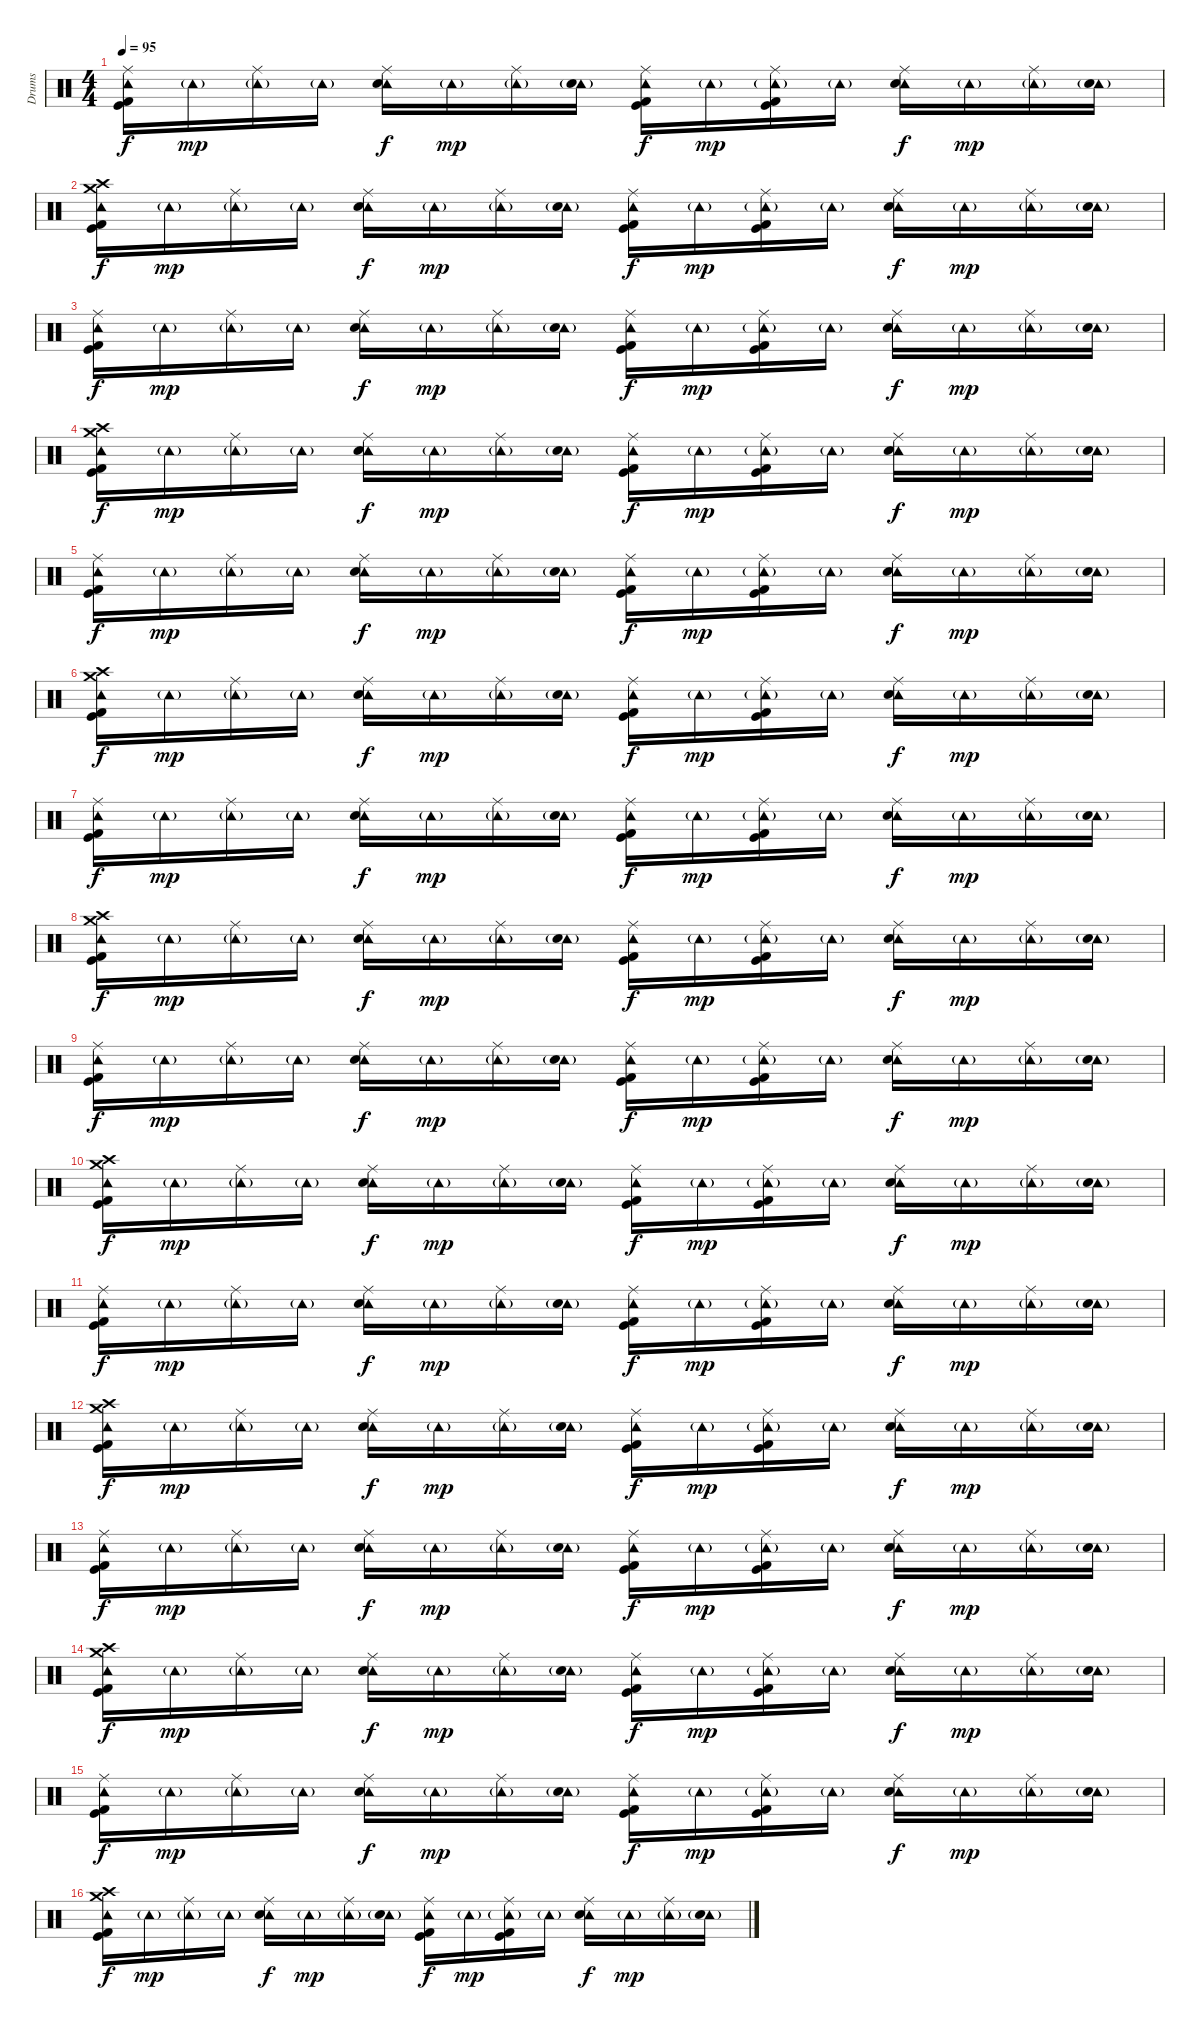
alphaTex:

\track ("Drums" "Drums") {instrument percussion}
\staff {score}
\articulation defaults
\ts (4 4)
\tempo 95
\clef neutral
\ks c
("Ride (middle)" "Tambourine (hit)" "Kick (hit) 2" "Kick (hit)").16{dy f} "Tambourine (hit)"{g}.16{dy mp} ("Ride (middle)" "Tambourine (hit)"{g}).16 "Tambourine (hit)"{g}.16 ("Ride (middle)" "Tambourine (hit)" "Snare (hit) 2").16{dy f} "Tambourine (hit)"{g}.16{dy mp} ("Ride (middle)" "Tambourine (hit)"{g}).16 ("Tambourine (hit)"{g} "Snare (hit) 2").16 ("Ride (middle)" "Tambourine (hit)" "Kick (hit) 2" "Kick (hit)").16{dy f} "Tambourine (hit)"{g}.16{dy mp} ("Ride (middle)" "Tambourine (hit)"{g} "Kick (hit) 2" "Kick (hit)").16 "Tambourine (hit)"{g}.16 ("Ride (middle)" "Tambourine (hit)" "Snare (hit) 2").16{dy f} "Tambourine (hit)"{g}.16{dy mp} ("Ride (middle)" "Tambourine (hit)"{g}).16 ("Tambourine (hit)"{g} "Snare (hit) 2").16 |
("Crash high (hit)" "Tambourine (hit)" "Crash medium (hit)" "Kick (hit) 2" "Kick (hit)").16{dy f} "Tambourine (hit)"{g}.16{dy mp} ("Ride (middle)" "Tambourine (hit)"{g}).16 "Tambourine (hit)"{g}.16 ("Ride (middle)" "Tambourine (hit)" "Snare (hit) 2").16{dy f} "Tambourine (hit)"{g}.16{dy mp} ("Ride (middle)" "Tambourine (hit)"{g}).16 ("Tambourine (hit)"{g} "Snare (hit) 2").16 ("Ride (middle)" "Tambourine (hit)" "Kick (hit) 2" "Kick (hit)").16{dy f} "Tambourine (hit)"{g}.16{dy mp} ("Ride (middle)" "Tambourine (hit)"{g} "Kick (hit) 2" "Kick (hit)").16 "Tambourine (hit)"{g}.16 ("Ride (middle)" "Tambourine (hit)" "Snare (hit) 2").16{dy f} "Tambourine (hit)"{g}.16{dy mp} ("Ride (middle)" "Tambourine (hit)"{g}).16 ("Tambourine (hit)"{g} "Snare (hit) 2").16 |
("Ride (middle)" "Tambourine (hit)" "Kick (hit) 2" "Kick (hit)").16{dy f} "Tambourine (hit)"{g}.16{dy mp} ("Ride (middle)" "Tambourine (hit)"{g}).16 "Tambourine (hit)"{g}.16 ("Ride (middle)" "Tambourine (hit)" "Snare (hit) 2").16{dy f} "Tambourine (hit)"{g}.16{dy mp} ("Ride (middle)" "Tambourine (hit)"{g}).16 ("Tambourine (hit)"{g} "Snare (hit) 2").16 ("Ride (middle)" "Tambourine (hit)" "Kick (hit) 2" "Kick (hit)").16{dy f} "Tambourine (hit)"{g}.16{dy mp} ("Ride (middle)" "Tambourine (hit)"{g} "Kick (hit) 2" "Kick (hit)").16 "Tambourine (hit)"{g}.16 ("Ride (middle)" "Tambourine (hit)" "Snare (hit) 2").16{dy f} "Tambourine (hit)"{g}.16{dy mp} ("Ride (middle)" "Tambourine (hit)"{g}).16 ("Tambourine (hit)"{g} "Snare (hit) 2").16 |
("Crash high (hit)" "Tambourine (hit)" "Crash medium (hit)" "Kick (hit) 2" "Kick (hit)").16{dy f} "Tambourine (hit)"{g}.16{dy mp} ("Ride (middle)" "Tambourine (hit)"{g}).16 "Tambourine (hit)"{g}.16 ("Ride (middle)" "Tambourine (hit)" "Snare (hit) 2").16{dy f} "Tambourine (hit)"{g}.16{dy mp} ("Ride (middle)" "Tambourine (hit)"{g}).16 ("Tambourine (hit)"{g} "Snare (hit) 2").16 ("Ride (middle)" "Tambourine (hit)" "Kick (hit) 2" "Kick (hit)").16{dy f} "Tambourine (hit)"{g}.16{dy mp} ("Ride (middle)" "Tambourine (hit)"{g} "Kick (hit) 2" "Kick (hit)").16 "Tambourine (hit)"{g}.16 ("Ride (middle)" "Tambourine (hit)" "Snare (hit) 2").16{dy f} "Tambourine (hit)"{g}.16{dy mp} ("Ride (middle)" "Tambourine (hit)"{g}).16 ("Tambourine (hit)"{g} "Snare (hit) 2").16 |
("Ride (middle)" "Tambourine (hit)" "Kick (hit) 2" "Kick (hit)").16{dy f} "Tambourine (hit)"{g}.16{dy mp} ("Ride (middle)" "Tambourine (hit)"{g}).16 "Tambourine (hit)"{g}.16 ("Ride (middle)" "Tambourine (hit)" "Snare (hit) 2").16{dy f} "Tambourine (hit)"{g}.16{dy mp} ("Ride (middle)" "Tambourine (hit)"{g}).16 ("Tambourine (hit)"{g} "Snare (hit) 2").16 ("Ride (middle)" "Tambourine (hit)" "Kick (hit) 2" "Kick (hit)").16{dy f} "Tambourine (hit)"{g}.16{dy mp} ("Ride (middle)" "Tambourine (hit)"{g} "Kick (hit) 2" "Kick (hit)").16 "Tambourine (hit)"{g}.16 ("Ride (middle)" "Tambourine (hit)" "Snare (hit) 2").16{dy f} "Tambourine (hit)"{g}.16{dy mp} ("Ride (middle)" "Tambourine (hit)"{g}).16 ("Tambourine (hit)"{g} "Snare (hit) 2").16 |
("Crash high (hit)" "Tambourine (hit)" "Crash medium (hit)" "Kick (hit) 2" "Kick (hit)").16{dy f} "Tambourine (hit)"{g}.16{dy mp} ("Ride (middle)" "Tambourine (hit)"{g}).16 "Tambourine (hit)"{g}.16 ("Ride (middle)" "Tambourine (hit)" "Snare (hit) 2").16{dy f} "Tambourine (hit)"{g}.16{dy mp} ("Ride (middle)" "Tambourine (hit)"{g}).16 ("Tambourine (hit)"{g} "Snare (hit) 2").16 ("Ride (middle)" "Tambourine (hit)" "Kick (hit) 2" "Kick (hit)").16{dy f} "Tambourine (hit)"{g}.16{dy mp} ("Ride (middle)" "Tambourine (hit)"{g} "Kick (hit) 2" "Kick (hit)").16 "Tambourine (hit)"{g}.16 ("Ride (middle)" "Tambourine (hit)" "Snare (hit) 2").16{dy f} "Tambourine (hit)"{g}.16{dy mp} ("Ride (middle)" "Tambourine (hit)"{g}).16 ("Tambourine (hit)"{g} "Snare (hit) 2").16 |
("Ride (middle)" "Tambourine (hit)" "Kick (hit) 2" "Kick (hit)").16{dy f} "Tambourine (hit)"{g}.16{dy mp} ("Ride (middle)" "Tambourine (hit)"{g}).16 "Tambourine (hit)"{g}.16 ("Ride (middle)" "Tambourine (hit)" "Snare (hit) 2").16{dy f} "Tambourine (hit)"{g}.16{dy mp} ("Ride (middle)" "Tambourine (hit)"{g}).16 ("Tambourine (hit)"{g} "Snare (hit) 2").16 ("Ride (middle)" "Tambourine (hit)" "Kick (hit) 2" "Kick (hit)").16{dy f} "Tambourine (hit)"{g}.16{dy mp} ("Ride (middle)" "Tambourine (hit)"{g} "Kick (hit) 2" "Kick (hit)").16 "Tambourine (hit)"{g}.16 ("Ride (middle)" "Tambourine (hit)" "Snare (hit) 2").16{dy f} "Tambourine (hit)"{g}.16{dy mp} ("Ride (middle)" "Tambourine (hit)"{g}).16 ("Tambourine (hit)"{g} "Snare (hit) 2").16 |
("Crash high (hit)" "Tambourine (hit)" "Crash medium (hit)" "Kick (hit) 2" "Kick (hit)").16{dy f} "Tambourine (hit)"{g}.16{dy mp} ("Ride (middle)" "Tambourine (hit)"{g}).16 "Tambourine (hit)"{g}.16 ("Ride (middle)" "Tambourine (hit)" "Snare (hit) 2").16{dy f} "Tambourine (hit)"{g}.16{dy mp} ("Ride (middle)" "Tambourine (hit)"{g}).16 ("Tambourine (hit)"{g} "Snare (hit) 2").16 ("Ride (middle)" "Tambourine (hit)" "Kick (hit) 2" "Kick (hit)").16{dy f} "Tambourine (hit)"{g}.16{dy mp} ("Ride (middle)" "Tambourine (hit)"{g} "Kick (hit) 2" "Kick (hit)").16 "Tambourine (hit)"{g}.16 ("Ride (middle)" "Tambourine (hit)" "Snare (hit) 2").16{dy f} "Tambourine (hit)"{g}.16{dy mp} ("Ride (middle)" "Tambourine (hit)"{g}).16 ("Tambourine (hit)"{g} "Snare (hit) 2").16 |
("Ride (middle)" "Tambourine (hit)" "Kick (hit) 2" "Kick (hit)").16{dy f} "Tambourine (hit)"{g}.16{dy mp} ("Ride (middle)" "Tambourine (hit)"{g}).16 "Tambourine (hit)"{g}.16 ("Ride (middle)" "Tambourine (hit)" "Snare (hit) 2").16{dy f} "Tambourine (hit)"{g}.16{dy mp} ("Ride (middle)" "Tambourine (hit)"{g}).16 ("Tambourine (hit)"{g} "Snare (hit) 2").16 ("Ride (middle)" "Tambourine (hit)" "Kick (hit) 2" "Kick (hit)").16{dy f} "Tambourine (hit)"{g}.16{dy mp} ("Ride (middle)" "Tambourine (hit)"{g} "Kick (hit) 2" "Kick (hit)").16 "Tambourine (hit)"{g}.16 ("Ride (middle)" "Tambourine (hit)" "Snare (hit) 2").16{dy f} "Tambourine (hit)"{g}.16{dy mp} ("Ride (middle)" "Tambourine (hit)"{g}).16 ("Tambourine (hit)"{g} "Snare (hit) 2").16 |
("Crash high (hit)" "Tambourine (hit)" "Crash medium (hit)" "Kick (hit) 2" "Kick (hit)").16{dy f} "Tambourine (hit)"{g}.16{dy mp} ("Ride (middle)" "Tambourine (hit)"{g}).16 "Tambourine (hit)"{g}.16 ("Ride (middle)" "Tambourine (hit)" "Snare (hit) 2").16{dy f} "Tambourine (hit)"{g}.16{dy mp} ("Ride (middle)" "Tambourine (hit)"{g}).16 ("Tambourine (hit)"{g} "Snare (hit) 2").16 ("Ride (middle)" "Tambourine (hit)" "Kick (hit) 2" "Kick (hit)").16{dy f} "Tambourine (hit)"{g}.16{dy mp} ("Ride (middle)" "Tambourine (hit)"{g} "Kick (hit) 2" "Kick (hit)").16 "Tambourine (hit)"{g}.16 ("Ride (middle)" "Tambourine (hit)" "Snare (hit) 2").16{dy f} "Tambourine (hit)"{g}.16{dy mp} ("Ride (middle)" "Tambourine (hit)"{g}).16 ("Tambourine (hit)"{g} "Snare (hit) 2").16 |
("Ride (middle)" "Tambourine (hit)" "Kick (hit) 2" "Kick (hit)").16{dy f} "Tambourine (hit)"{g}.16{dy mp} ("Ride (middle)" "Tambourine (hit)"{g}).16 "Tambourine (hit)"{g}.16 ("Ride (middle)" "Tambourine (hit)" "Snare (hit) 2").16{dy f} "Tambourine (hit)"{g}.16{dy mp} ("Ride (middle)" "Tambourine (hit)"{g}).16 ("Tambourine (hit)"{g} "Snare (hit) 2").16 ("Ride (middle)" "Tambourine (hit)" "Kick (hit) 2" "Kick (hit)").16{dy f} "Tambourine (hit)"{g}.16{dy mp} ("Ride (middle)" "Tambourine (hit)"{g} "Kick (hit) 2" "Kick (hit)").16 "Tambourine (hit)"{g}.16 ("Ride (middle)" "Tambourine (hit)" "Snare (hit) 2").16{dy f} "Tambourine (hit)"{g}.16{dy mp} ("Ride (middle)" "Tambourine (hit)"{g}).16 ("Tambourine (hit)"{g} "Snare (hit) 2").16 |
("Crash high (hit)" "Tambourine (hit)" "Crash medium (hit)" "Kick (hit) 2" "Kick (hit)").16{dy f} "Tambourine (hit)"{g}.16{dy mp} ("Ride (middle)" "Tambourine (hit)"{g}).16 "Tambourine (hit)"{g}.16 ("Ride (middle)" "Tambourine (hit)" "Snare (hit) 2").16{dy f} "Tambourine (hit)"{g}.16{dy mp} ("Ride (middle)" "Tambourine (hit)"{g}).16 ("Tambourine (hit)"{g} "Snare (hit) 2").16 ("Ride (middle)" "Tambourine (hit)" "Kick (hit) 2" "Kick (hit)").16{dy f} "Tambourine (hit)"{g}.16{dy mp} ("Ride (middle)" "Tambourine (hit)"{g} "Kick (hit) 2" "Kick (hit)").16 "Tambourine (hit)"{g}.16 ("Ride (middle)" "Tambourine (hit)" "Snare (hit) 2").16{dy f} "Tambourine (hit)"{g}.16{dy mp} ("Ride (middle)" "Tambourine (hit)"{g}).16 ("Tambourine (hit)"{g} "Snare (hit) 2").16 |
("Ride (middle)" "Tambourine (hit)" "Kick (hit) 2" "Kick (hit)").16{dy f} "Tambourine (hit)"{g}.16{dy mp} ("Ride (middle)" "Tambourine (hit)"{g}).16 "Tambourine (hit)"{g}.16 ("Ride (middle)" "Tambourine (hit)" "Snare (hit) 2").16{dy f} "Tambourine (hit)"{g}.16{dy mp} ("Ride (middle)" "Tambourine (hit)"{g}).16 ("Tambourine (hit)"{g} "Snare (hit) 2").16 ("Ride (middle)" "Tambourine (hit)" "Kick (hit) 2" "Kick (hit)").16{dy f} "Tambourine (hit)"{g}.16{dy mp} ("Ride (middle)" "Tambourine (hit)"{g} "Kick (hit) 2" "Kick (hit)").16 "Tambourine (hit)"{g}.16 ("Ride (middle)" "Tambourine (hit)" "Snare (hit) 2").16{dy f} "Tambourine (hit)"{g}.16{dy mp} ("Ride (middle)" "Tambourine (hit)"{g}).16 ("Tambourine (hit)"{g} "Snare (hit) 2").16 |
("Crash high (hit)" "Tambourine (hit)" "Crash medium (hit)" "Kick (hit) 2" "Kick (hit)").16{dy f} "Tambourine (hit)"{g}.16{dy mp} ("Ride (middle)" "Tambourine (hit)"{g}).16 "Tambourine (hit)"{g}.16 ("Ride (middle)" "Tambourine (hit)" "Snare (hit) 2").16{dy f} "Tambourine (hit)"{g}.16{dy mp} ("Ride (middle)" "Tambourine (hit)"{g}).16 ("Tambourine (hit)"{g} "Snare (hit) 2").16 ("Ride (middle)" "Tambourine (hit)" "Kick (hit) 2" "Kick (hit)").16{dy f} "Tambourine (hit)"{g}.16{dy mp} ("Ride (middle)" "Tambourine (hit)"{g} "Kick (hit) 2" "Kick (hit)").16 "Tambourine (hit)"{g}.16 ("Ride (middle)" "Tambourine (hit)" "Snare (hit) 2").16{dy f} "Tambourine (hit)"{g}.16{dy mp} ("Ride (middle)" "Tambourine (hit)"{g}).16 ("Tambourine (hit)"{g} "Snare (hit) 2").16 |
("Ride (middle)" "Tambourine (hit)" "Kick (hit) 2" "Kick (hit)").16{dy f} "Tambourine (hit)"{g}.16{dy mp} ("Ride (middle)" "Tambourine (hit)"{g}).16 "Tambourine (hit)"{g}.16 ("Ride (middle)" "Tambourine (hit)" "Snare (hit) 2").16{dy f} "Tambourine (hit)"{g}.16{dy mp} ("Ride (middle)" "Tambourine (hit)"{g}).16 ("Tambourine (hit)"{g} "Snare (hit) 2").16 ("Ride (middle)" "Tambourine (hit)" "Kick (hit) 2" "Kick (hit)").16{dy f} "Tambourine (hit)"{g}.16{dy mp} ("Ride (middle)" "Tambourine (hit)"{g} "Kick (hit) 2" "Kick (hit)").16 "Tambourine (hit)"{g}.16 ("Ride (middle)" "Tambourine (hit)" "Snare (hit) 2").16{dy f} "Tambourine (hit)"{g}.16{dy mp} ("Ride (middle)" "Tambourine (hit)"{g}).16 ("Tambourine (hit)"{g} "Snare (hit) 2").16 |
("Crash high (hit)" "Tambourine (hit)" "Crash medium (hit)" "Kick (hit) 2" "Kick (hit)").16{dy f} "Tambourine (hit)"{g}.16{dy mp} ("Ride (middle)" "Tambourine (hit)"{g}).16 "Tambourine (hit)"{g}.16 ("Ride (middle)" "Tambourine (hit)" "Snare (hit) 2").16{dy f} "Tambourine (hit)"{g}.16{dy mp} ("Ride (middle)" "Tambourine (hit)"{g}).16 ("Tambourine (hit)"{g} "Snare (hit) 2").16 ("Ride (middle)" "Tambourine (hit)" "Kick (hit) 2" "Kick (hit)").16{dy f} "Tambourine (hit)"{g}.16{dy mp} ("Ride (middle)" "Tambourine (hit)"{g} "Kick (hit) 2" "Kick (hit)").16 "Tambourine (hit)"{g}.16 ("Ride (middle)" "Tambourine (hit)" "Snare (hit) 2").16{dy f} "Tambourine (hit)"{g}.16{dy mp} ("Ride (middle)" "Tambourine (hit)"{g}).16 ("Tambourine (hit)"{g} "Snare (hit) 2").16
